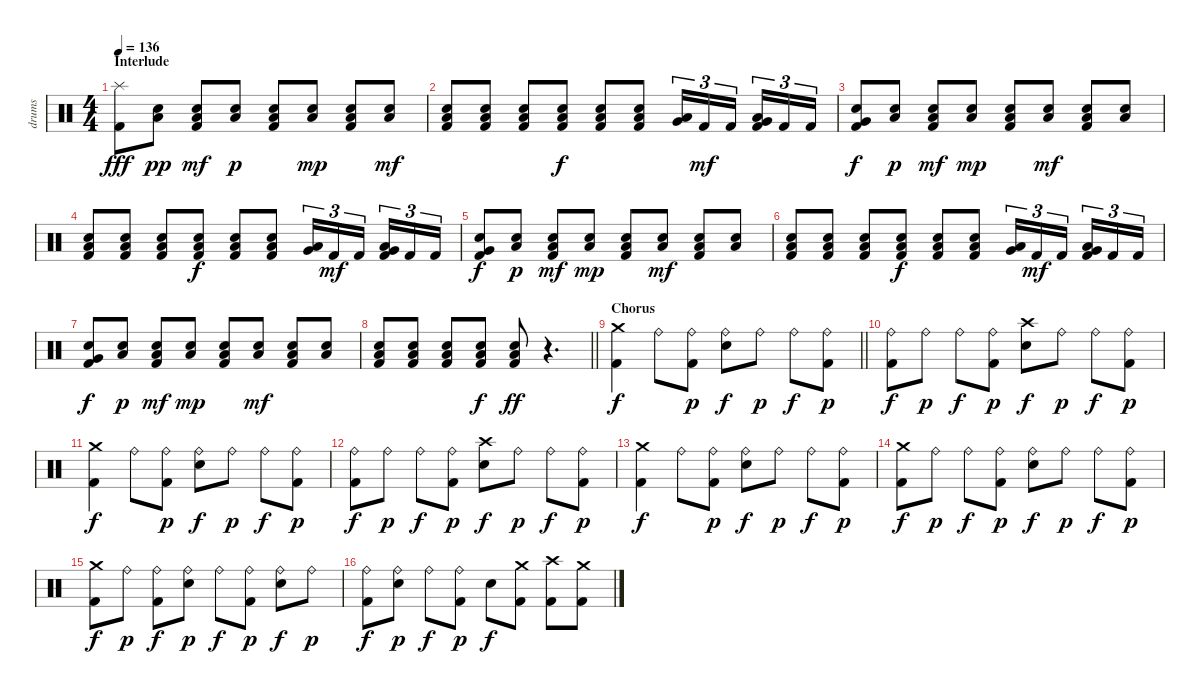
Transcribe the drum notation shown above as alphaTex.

\track ("drums" "drums") {instrument percussion}
\staff {score}
\articulation defaults
\ts (4 4)
\section ("" "Interlude")
\tempo 136
\clef neutral
\ks c
("Splash (hit)" "Kick (hit) 2").8{dy fff} ("Electric Snare (hit)" "Low Tom (hit)").8{dy pp} ("Electric Snare (hit)" "Low Tom (hit)" "Kick (hit) 2").8{dy mf} ("Electric Snare (hit)" "Low Tom (hit)").8{dy p} ("Electric Snare (hit)" "Low Tom (hit)" "Kick (hit) 2").8 ("Electric Snare (hit)" "Low Tom (hit)").8{dy mp} ("Electric Snare (hit)" "Low Tom (hit)" "Kick (hit) 2").8 ("Electric Snare (hit)" "Low Tom (hit)").8{dy mf} |
("Electric Snare (hit)" "Low Tom (hit)" "Kick (hit) 2").8 ("Electric Snare (hit)" "Low Tom (hit)" "Kick (hit) 2").8 ("Electric Snare (hit)" "Low Tom (hit)" "Kick (hit) 2").8 ("Electric Snare (hit)" "Low Tom (hit)" "Kick (hit) 2").8{dy f} ("Electric Snare (hit)" "Low Tom (hit)" "Kick (hit) 2").8 ("Electric Snare (hit)" "Low Tom (hit)" "Kick (hit) 2").8 ("Low Tom (hit)" "Very Low Tom (hit)").16{tu (3 2)} "Kick (hit) 2".16{tu (3 2) dy mf} "Kick (hit) 2".16{tu (3 2) beam splitsecondary} ("Low Tom (hit)" "Very Low Tom (hit)" "Kick (hit) 2").16{tu (3 2)} "Kick (hit) 2".16{tu (3 2)} "Kick (hit) 2".16{tu (3 2)} |
("Electric Snare (hit)" "Very Low Tom (hit)" "Kick (hit) 2").8{dy f} ("Electric Snare (hit)" "Low Tom (hit)").8{dy p} ("Electric Snare (hit)" "Low Tom (hit)" "Kick (hit) 2").8{dy mf} ("Electric Snare (hit)" "Low Tom (hit)").8{dy mp} ("Electric Snare (hit)" "Low Tom (hit)" "Kick (hit) 2").8 ("Electric Snare (hit)" "Low Tom (hit)").8{dy mf} ("Electric Snare (hit)" "Low Tom (hit)" "Kick (hit) 2").8 ("Electric Snare (hit)" "Low Tom (hit)").8 |
("Electric Snare (hit)" "Low Tom (hit)" "Kick (hit) 2").8 ("Electric Snare (hit)" "Low Tom (hit)" "Kick (hit) 2").8 ("Electric Snare (hit)" "Low Tom (hit)" "Kick (hit) 2").8 ("Electric Snare (hit)" "Low Tom (hit)" "Kick (hit) 2").8{dy f} ("Electric Snare (hit)" "Low Tom (hit)" "Kick (hit) 2").8 ("Electric Snare (hit)" "Low Tom (hit)" "Kick (hit) 2").8 ("Low Tom (hit)" "Very Low Tom (hit)").16{tu (3 2)} "Kick (hit) 2".16{tu (3 2) dy mf} "Kick (hit) 2".16{tu (3 2) beam splitsecondary} ("Low Tom (hit)" "Very Low Tom (hit)" "Kick (hit) 2").16{tu (3 2)} "Kick (hit) 2".16{tu (3 2)} "Kick (hit) 2".16{tu (3 2)} |
("Electric Snare (hit)" "Very Low Tom (hit)" "Kick (hit) 2").8{dy f} ("Electric Snare (hit)" "Low Tom (hit)").8{dy p} ("Electric Snare (hit)" "Low Tom (hit)" "Kick (hit) 2").8{dy mf} ("Electric Snare (hit)" "Low Tom (hit)").8{dy mp} ("Electric Snare (hit)" "Low Tom (hit)" "Kick (hit) 2").8 ("Electric Snare (hit)" "Low Tom (hit)").8{dy mf} ("Electric Snare (hit)" "Low Tom (hit)" "Kick (hit) 2").8 ("Electric Snare (hit)" "Low Tom (hit)").8 |
("Electric Snare (hit)" "Low Tom (hit)" "Kick (hit) 2").8 ("Electric Snare (hit)" "Low Tom (hit)" "Kick (hit) 2").8 ("Electric Snare (hit)" "Low Tom (hit)" "Kick (hit) 2").8 ("Electric Snare (hit)" "Low Tom (hit)" "Kick (hit) 2").8{dy f} ("Electric Snare (hit)" "Low Tom (hit)" "Kick (hit) 2").8 ("Electric Snare (hit)" "Low Tom (hit)" "Kick (hit) 2").8 ("Low Tom (hit)" "Very Low Tom (hit)").16{tu (3 2)} "Kick (hit) 2".16{tu (3 2) dy mf} "Kick (hit) 2".16{tu (3 2) beam splitsecondary} ("Low Tom (hit)" "Very Low Tom (hit)" "Kick (hit) 2").16{tu (3 2)} "Kick (hit) 2".16{tu (3 2)} "Kick (hit) 2".16{tu (3 2)} |
("Electric Snare (hit)" "Very Low Tom (hit)" "Kick (hit) 2").8{dy f} ("Electric Snare (hit)" "Low Tom (hit)").8{dy p} ("Electric Snare (hit)" "Low Tom (hit)" "Kick (hit) 2").8{dy mf} ("Electric Snare (hit)" "Low Tom (hit)").8{dy mp} ("Electric Snare (hit)" "Low Tom (hit)" "Kick (hit) 2").8 ("Electric Snare (hit)" "Low Tom (hit)").8{dy mf} ("Electric Snare (hit)" "Low Tom (hit)" "Kick (hit) 2").8 ("Electric Snare (hit)" "Low Tom (hit)").8 |
\barLineRight lightlight
("Electric Snare (hit)" "Low Tom (hit)" "Kick (hit) 2").8 ("Electric Snare (hit)" "Low Tom (hit)" "Kick (hit) 2").8 ("Electric Snare (hit)" "Low Tom (hit)" "Kick (hit) 2").8 ("Electric Snare (hit)" "Low Tom (hit)" "Kick (hit) 2").8{dy f} ("Electric Snare (hit)" "Low Tom (hit)" "Kick (hit) 2").8{dy ff} r.4{d} |
\section ("" "Chorus")
\barLineRight lightlight
("Crash medium (hit)" "Kick (hit) 2").4{dy f} "Ride (bell)".8 ("Ride (bell)" "Kick (hit) 2").8{dy p} ("Ride (bell)" "Electric Snare (hit)").8{dy f} "Ride (bell)".8{dy p} "Ride (bell)".8{dy f} ("Ride (bell)" "Kick (hit) 2").8{dy p} |
("Ride (bell)" "Kick (hit) 2").8{dy f} "Ride (bell)".8{dy p} "Ride (bell)".8{dy f} ("Ride (bell)" "Kick (hit) 2").8{dy p} ("Crash high (hit)" "Electric Snare (hit)").8{dy f} "Ride (bell)".8{dy p} "Ride (bell)".8{dy f} ("Ride (bell)" "Kick (hit) 2").8{dy p} |
("Crash medium (hit)" "Kick (hit) 2").4{dy f} "Ride (bell)".8 ("Ride (bell)" "Kick (hit) 2").8{dy p} ("Ride (bell)" "Electric Snare (hit)").8{dy f} "Ride (bell)".8{dy p} "Ride (bell)".8{dy f} ("Ride (bell)" "Kick (hit) 2").8{dy p} |
("Ride (bell)" "Kick (hit) 2").8{dy f} "Ride (bell)".8{dy p} "Ride (bell)".8{dy f} ("Ride (bell)" "Kick (hit) 2").8{dy p} ("Crash high (hit)" "Electric Snare (hit)").8{dy f} "Ride (bell)".8{dy p} "Ride (bell)".8{dy f} ("Ride (bell)" "Kick (hit) 2").8{dy p} |
("Crash medium (hit)" "Kick (hit) 2").4{dy f} "Ride (bell)".8 ("Ride (bell)" "Kick (hit) 2").8{dy p} ("Ride (bell)" "Electric Snare (hit)").8{dy f} "Ride (bell)".8{dy p} "Ride (bell)".8{dy f} ("Ride (bell)" "Kick (hit) 2").8{dy p} |
("Crash medium (hit)" "Kick (hit) 2").8{dy f} "Ride (bell)".8{dy p} "Ride (bell)".8{dy f} ("Ride (bell)" "Kick (hit) 2").8{dy p} ("Ride (bell)" "Electric Snare (hit)").8{dy f} "Ride (bell)".8{dy p} "Ride (bell)".8{dy f} ("Ride (bell)" "Kick (hit) 2").8{dy p} |
("Crash medium (hit)" "Kick (hit) 2").8{dy f} "Ride (bell)".8{dy p} ("Ride (bell)" "Kick (hit) 2").8{dy f} ("Ride (bell)" "Electric Snare (hit)").8{dy p} "Ride (bell)".8{dy f} ("Ride (bell)" "Kick (hit) 2").8{dy p} ("Ride (bell)" "Electric Snare (hit)").8{dy f} "Ride (bell)".8{dy p} |
("Ride (bell)" "Kick (hit) 2").8{dy f} ("Ride (bell)" "Electric Snare (hit)").8{dy p} "Ride (bell)".8{dy f} ("Ride (bell)" "Kick (hit) 2").8{dy p} "Electric Snare (hit)".8{dy f} ("Crash medium (hit)" "Kick (hit) 2").8 ("Crash high (hit)" "Kick (hit) 2").8 ("Crash medium (hit)" "Kick (hit) 2").8
